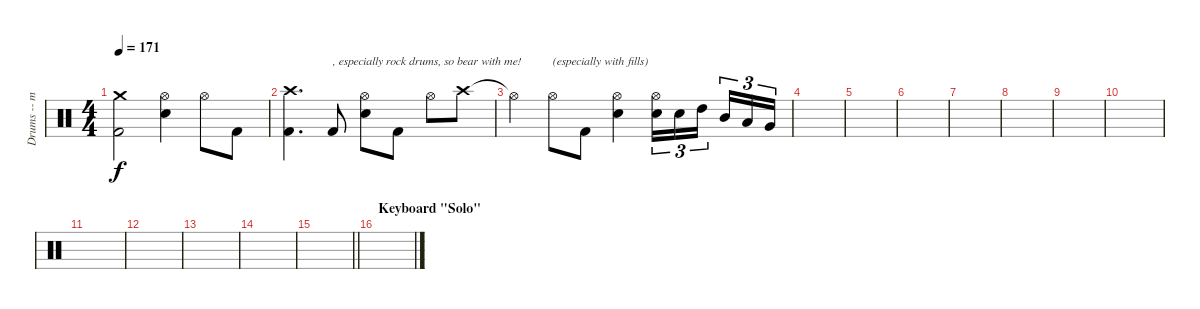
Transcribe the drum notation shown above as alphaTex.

\track ("Drums -- mostly wrong" "Drums -- m") {instrument percussion}
\staff {score}
\articulation defaults
\ts (4 4)
\tempo 171
\clef neutral
\ks c
("Crash medium (hit)" "Kick (hit) 2").2{dy f} ("Hi-Hat (open)" "Electric Snare (hit)").4 "Hi-Hat (open)".8 "Kick (hit) 2".8 |
("Crash high (hit)" "Kick (hit) 2").4{d} "Kick (hit) 2".8{txt ", especially rock drums, so bear with me!"} ("Hi-Hat (open)" "Electric Snare (hit)").8 "Kick (hit) 2".8 "Hi-Hat (open)".8 "Crash high (hit)".8 |
"Hi-Hat (open)"{t}.4 "Hi-Hat (open)".8{txt "(especially with fills)"} "Kick (hit) 2".8 ("Hi-Hat (open)" "Electric Snare (hit)").4 ("Hi-Hat (open)" "Electric Snare (hit)").16{tu (3 2)} "Electric Snare (hit)".16{tu (3 2)} "High Tom (hit)".16{tu (3 2) beam splitsecondary} "Mid Tom (hit)".16{tu (3 2)} "Low Tom (hit)".16{tu (3 2)} "Very Low Tom (hit)".16{tu (3 2)} |
|
|
|
|
|
|
|
|
|
|
|
\barLineRight lightlight
|
\section ("" "Keyboard \"Solo\"")
